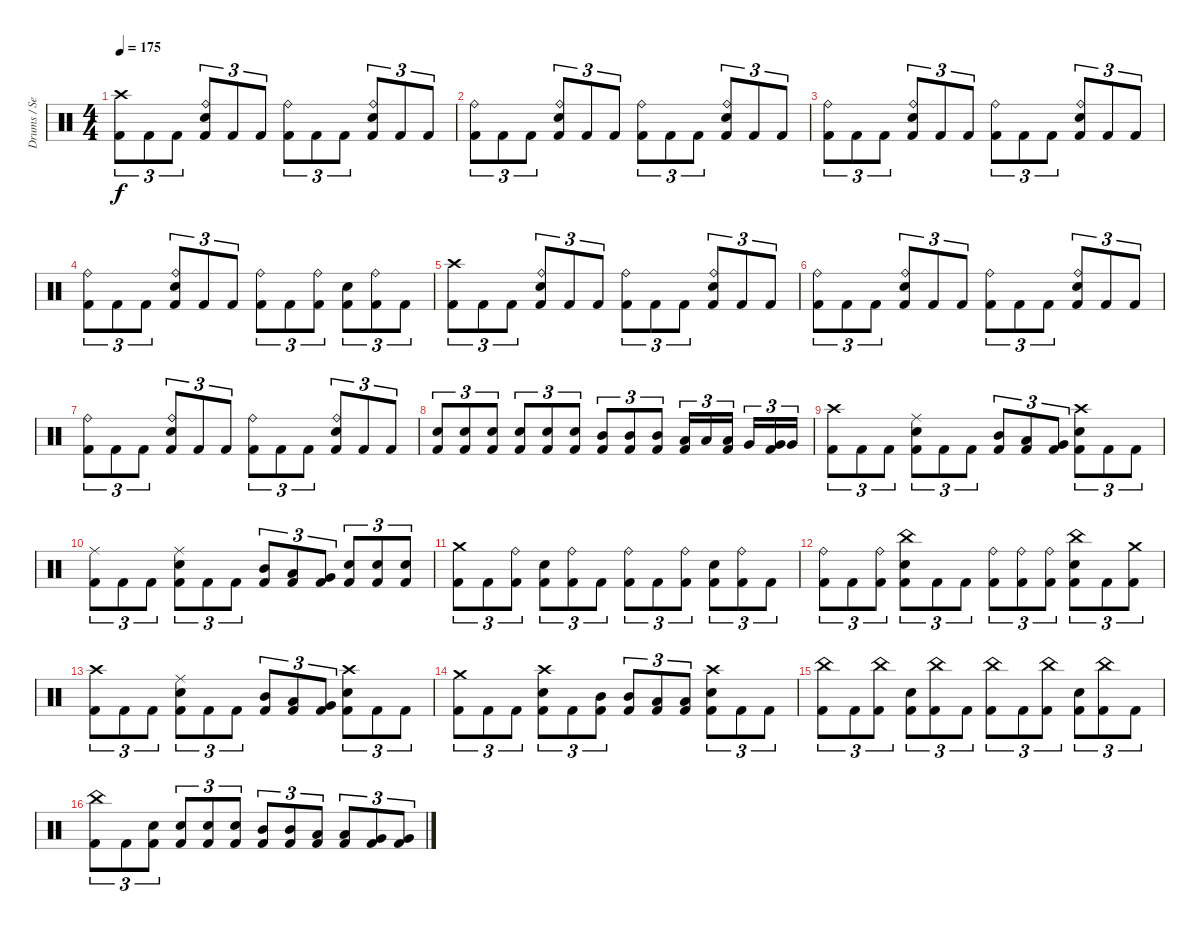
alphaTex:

\track ("Drums / Sean" "Drums / Se") {instrument percussion}
\staff {score}
\articulation defaults
\ts (4 4)
\tempo 175
\clef neutral
\ks c
("Crash high (hit)" "Kick (hit) 2").8{tu (3 2) dy f} "Kick (hit) 2".8{tu (3 2)} "Kick (hit) 2".8{tu (3 2)} ("Ride (bell)" "Electric Snare (hit)" "Kick (hit) 2").8{tu (3 2)} "Kick (hit) 2".8{tu (3 2)} "Kick (hit) 2".8{tu (3 2)} ("Ride (bell)" "Kick (hit) 2").8{tu (3 2)} "Kick (hit) 2".8{tu (3 2)} "Kick (hit) 2".8{tu (3 2)} ("Ride (bell)" "Electric Snare (hit)" "Kick (hit) 2").8{tu (3 2)} "Kick (hit) 2".8{tu (3 2)} "Kick (hit) 2".8{tu (3 2)} |
("Ride (bell)" "Kick (hit) 2").8{tu (3 2)} "Kick (hit) 2".8{tu (3 2)} "Kick (hit) 2".8{tu (3 2)} ("Ride (bell)" "Electric Snare (hit)" "Kick (hit) 2").8{tu (3 2)} "Kick (hit) 2".8{tu (3 2)} "Kick (hit) 2".8{tu (3 2)} ("Ride (bell)" "Kick (hit) 2").8{tu (3 2)} "Kick (hit) 2".8{tu (3 2)} "Kick (hit) 2".8{tu (3 2)} ("Ride (bell)" "Electric Snare (hit)" "Kick (hit) 2").8{tu (3 2)} "Kick (hit) 2".8{tu (3 2)} "Kick (hit) 2".8{tu (3 2)} |
("Ride (bell)" "Kick (hit) 2").8{tu (3 2)} "Kick (hit) 2".8{tu (3 2)} "Kick (hit) 2".8{tu (3 2)} ("Ride (bell)" "Electric Snare (hit)" "Kick (hit) 2").8{tu (3 2)} "Kick (hit) 2".8{tu (3 2)} "Kick (hit) 2".8{tu (3 2)} ("Ride (bell)" "Kick (hit) 2").8{tu (3 2)} "Kick (hit) 2".8{tu (3 2)} "Kick (hit) 2".8{tu (3 2)} ("Ride (bell)" "Electric Snare (hit)" "Kick (hit) 2").8{tu (3 2)} "Kick (hit) 2".8{tu (3 2)} "Kick (hit) 2".8{tu (3 2)} |
("Ride (bell)" "Kick (hit) 2").8{tu (3 2)} "Kick (hit) 2".8{tu (3 2)} "Kick (hit) 2".8{tu (3 2)} ("Ride (bell)" "Electric Snare (hit)" "Kick (hit) 2").8{tu (3 2)} "Kick (hit) 2".8{tu (3 2)} "Kick (hit) 2".8{tu (3 2)} ("Ride (bell)" "Kick (hit) 2").8{tu (3 2)} "Kick (hit) 2".8{tu (3 2)} ("Ride (bell)" "Kick (hit) 2").8{tu (3 2)} ("Electric Snare (hit)" "Kick (hit) 2").8{tu (3 2)} ("Ride (bell)" "Kick (hit) 2").8{tu (3 2)} "Kick (hit) 2".8{tu (3 2)} |
("Crash high (hit)" "Kick (hit) 2").8{tu (3 2)} "Kick (hit) 2".8{tu (3 2)} "Kick (hit) 2".8{tu (3 2)} ("Ride (bell)" "Electric Snare (hit)" "Kick (hit) 2").8{tu (3 2)} "Kick (hit) 2".8{tu (3 2)} "Kick (hit) 2".8{tu (3 2)} ("Ride (bell)" "Kick (hit) 2").8{tu (3 2)} "Kick (hit) 2".8{tu (3 2)} "Kick (hit) 2".8{tu (3 2)} ("Ride (bell)" "Electric Snare (hit)" "Kick (hit) 2").8{tu (3 2)} "Kick (hit) 2".8{tu (3 2)} "Kick (hit) 2".8{tu (3 2)} |
("Ride (bell)" "Kick (hit) 2").8{tu (3 2)} "Kick (hit) 2".8{tu (3 2)} "Kick (hit) 2".8{tu (3 2)} ("Ride (bell)" "Electric Snare (hit)" "Kick (hit) 2").8{tu (3 2)} "Kick (hit) 2".8{tu (3 2)} "Kick (hit) 2".8{tu (3 2)} ("Ride (bell)" "Kick (hit) 2").8{tu (3 2)} "Kick (hit) 2".8{tu (3 2)} "Kick (hit) 2".8{tu (3 2)} ("Ride (bell)" "Electric Snare (hit)" "Kick (hit) 2").8{tu (3 2)} "Kick (hit) 2".8{tu (3 2)} "Kick (hit) 2".8{tu (3 2)} |
("Ride (bell)" "Kick (hit) 2").8{tu (3 2)} "Kick (hit) 2".8{tu (3 2)} "Kick (hit) 2".8{tu (3 2)} ("Ride (bell)" "Electric Snare (hit)" "Kick (hit) 2").8{tu (3 2)} "Kick (hit) 2".8{tu (3 2)} "Kick (hit) 2".8{tu (3 2)} ("Ride (bell)" "Kick (hit) 2").8{tu (3 2)} "Kick (hit) 2".8{tu (3 2)} "Kick (hit) 2".8{tu (3 2)} ("Ride (bell)" "Electric Snare (hit)" "Kick (hit) 2").8{tu (3 2)} "Kick (hit) 2".8{tu (3 2)} "Kick (hit) 2".8{tu (3 2)} |
("Electric Snare (hit)" "Kick (hit) 2").8{tu (3 2)} ("Electric Snare (hit)" "Kick (hit) 2").8{tu (3 2)} ("Electric Snare (hit)" "Kick (hit) 2").8{tu (3 2)} ("Electric Snare (hit)" "Kick (hit) 2").8{tu (3 2)} ("Electric Snare (hit)" "Kick (hit) 2").8{tu (3 2)} ("Electric Snare (hit)" "Kick (hit) 2").8{tu (3 2)} ("Mid Tom (hit)" "Kick (hit) 2").8{tu (3 2)} ("Mid Tom (hit)" "Kick (hit) 2").8{tu (3 2)} ("Mid Tom (hit)" "Kick (hit) 2").8{tu (3 2)} ("Low Tom (hit)" "Kick (hit) 2").16{tu (3 2)} "Low Tom (hit)".16{tu (3 2)} ("Low Tom (hit)" "Kick (hit) 2").16{tu (3 2)} "Very Low Tom (hit)".16{tu (3 2)} ("Very Low Tom (hit)" "Kick (hit) 2").16{tu (3 2)} "Very Low Tom (hit)".16{tu (3 2)} |
("Crash high (hit)" "Kick (hit) 2").8{tu (3 2)} "Kick (hit) 2".8{tu (3 2)} "Kick (hit) 2".8{tu (3 2)} ("Ride (middle)" "Electric Snare (hit)" "Kick (hit) 2").8{tu (3 2)} "Kick (hit) 2".8{tu (3 2)} "Kick (hit) 2".8{tu (3 2)} ("Mid Tom (hit)" "Kick (hit) 2").8{tu (3 2)} ("Low Tom (hit)" "Kick (hit) 2").8{tu (3 2)} ("Very Low Tom (hit)" "Kick (hit) 2").8{tu (3 2)} ("Crash high (hit)" "Electric Snare (hit)" "Kick (hit) 2").8{tu (3 2)} "Kick (hit) 2".8{tu (3 2)} "Kick (hit) 2".8{tu (3 2)} |
("Ride (middle)" "Kick (hit) 2").8{tu (3 2)} "Kick (hit) 2".8{tu (3 2)} "Kick (hit) 2".8{tu (3 2)} ("Ride (middle)" "Electric Snare (hit)" "Kick (hit) 2").8{tu (3 2)} "Kick (hit) 2".8{tu (3 2)} "Kick (hit) 2".8{tu (3 2)} ("Mid Tom (hit)" "Kick (hit) 2").8{tu (3 2)} ("Low Tom (hit)" "Kick (hit) 2").8{tu (3 2)} ("Very Low Tom (hit)" "Kick (hit) 2").8{tu (3 2)} ("Electric Snare (hit)" "Kick (hit) 2").8{tu (3 2)} ("Electric Snare (hit)" "Kick (hit) 2").8{tu (3 2)} ("Electric Snare (hit)" "Kick (hit) 2").8{tu (3 2)} |
("Crash medium (hit)" "Kick (hit) 2").8{tu (3 2)} "Kick (hit) 2".8{tu (3 2)} ("Ride (bell)" "Kick (hit) 2").8{tu (3 2)} ("Electric Snare (hit)" "Kick (hit) 2").8{tu (3 2)} ("Ride (bell)" "Kick (hit) 2").8{tu (3 2)} "Kick (hit) 2".8{tu (3 2)} ("Ride (bell)" "Kick (hit) 2").8{tu (3 2)} "Kick (hit) 2".8{tu (3 2)} ("Ride (bell)" "Kick (hit) 2").8{tu (3 2)} ("Electric Snare (hit)" "Kick (hit) 2").8{tu (3 2)} ("Ride (bell)" "Kick (hit) 2").8{tu (3 2)} "Kick (hit) 2".8{tu (3 2)} |
("Ride (bell)" "Kick (hit) 2").8{tu (3 2)} "Kick (hit) 2".8{tu (3 2)} ("Ride (bell)" "Kick (hit) 2").8{tu (3 2)} ("China (hit)" "Electric Snare (hit)" "Kick (hit) 2").8{tu (3 2)} "Kick (hit) 2".8{tu (3 2)} "Kick (hit) 2".8{tu (3 2)} ("Ride (bell)" "Kick (hit) 2").8{tu (3 2)} ("Ride (bell)" "Kick (hit) 2").8{tu (3 2)} ("Ride (bell)" "Kick (hit) 2").8{tu (3 2)} ("China (hit)" "Electric Snare (hit)" "Kick (hit) 2").8{tu (3 2)} "Kick (hit) 2".8{tu (3 2)} ("Crash medium (hit)" "Kick (hit) 2").8{tu (3 2)} |
("Crash high (hit)" "Kick (hit) 2").8{tu (3 2)} "Kick (hit) 2".8{tu (3 2)} "Kick (hit) 2".8{tu (3 2)} ("Ride (middle)" "Electric Snare (hit)" "Kick (hit) 2").8{tu (3 2)} "Kick (hit) 2".8{tu (3 2)} "Kick (hit) 2".8{tu (3 2)} ("Mid Tom (hit)" "Kick (hit) 2").8{tu (3 2)} ("Low Tom (hit)" "Kick (hit) 2").8{tu (3 2)} ("Very Low Tom (hit)" "Kick (hit) 2").8{tu (3 2)} ("Crash high (hit)" "Electric Snare (hit)" "Kick (hit) 2").8{tu (3 2)} "Kick (hit) 2".8{tu (3 2)} "Kick (hit) 2".8{tu (3 2)} |
("Crash medium (hit)" "Kick (hit) 2").8{tu (3 2)} "Kick (hit) 2".8{tu (3 2)} "Kick (hit) 2".8{tu (3 2)} ("Crash high (hit)" "Electric Snare (hit)" "Kick (hit) 2").8{tu (3 2)} "Kick (hit) 2".8{tu (3 2)} ("Mid Tom (hit)" "Kick (hit) 2").8{tu (3 2)} ("Mid Tom (hit)" "Kick (hit) 2").8{tu (3 2)} ("Low Tom (hit)" "Kick (hit) 2").8{tu (3 2)} ("Low Tom (hit)" "Kick (hit) 2").8{tu (3 2)} ("Crash high (hit)" "Electric Snare (hit)" "Kick (hit) 2").8{tu (3 2)} "Kick (hit) 2".8{tu (3 2)} "Kick (hit) 2".8{tu (3 2)} |
("China (hit)" "Kick (hit) 2").8{tu (3 2)} "Kick (hit) 2".8{tu (3 2)} ("China (hit)" "Kick (hit) 2").8{tu (3 2)} ("Electric Snare (hit)" "Kick (hit) 2").8{tu (3 2)} ("China (hit)" "Kick (hit) 2").8{tu (3 2)} "Kick (hit) 2".8{tu (3 2)} ("China (hit)" "Kick (hit) 2").8{tu (3 2)} "Kick (hit) 2".8{tu (3 2)} ("China (hit)" "Kick (hit) 2").8{tu (3 2)} ("Electric Snare (hit)" "Kick (hit) 2").8{tu (3 2)} ("China (hit)" "Kick (hit) 2").8{tu (3 2)} "Kick (hit) 2".8{tu (3 2)} |
("China (hit)" "Kick (hit) 2").8{tu (3 2)} "Kick (hit) 2".8{tu (3 2)} ("Electric Snare (hit)" "Kick (hit) 2").8{tu (3 2)} ("Electric Snare (hit)" "Kick (hit) 2").8{tu (3 2)} ("Electric Snare (hit)" "Kick (hit) 2").8{tu (3 2)} ("Electric Snare (hit)" "Kick (hit) 2").8{tu (3 2)} ("Mid Tom (hit)" "Kick (hit) 2").8{tu (3 2)} ("Mid Tom (hit)" "Kick (hit) 2").8{tu (3 2)} ("Low Tom (hit)" "Kick (hit) 2").8{tu (3 2)} ("Low Tom (hit)" "Kick (hit) 2").8{tu (3 2)} ("Very Low Tom (hit)" "Kick (hit) 2").8{tu (3 2)} ("Very Low Tom (hit)" "Kick (hit) 2").8{tu (3 2)}
